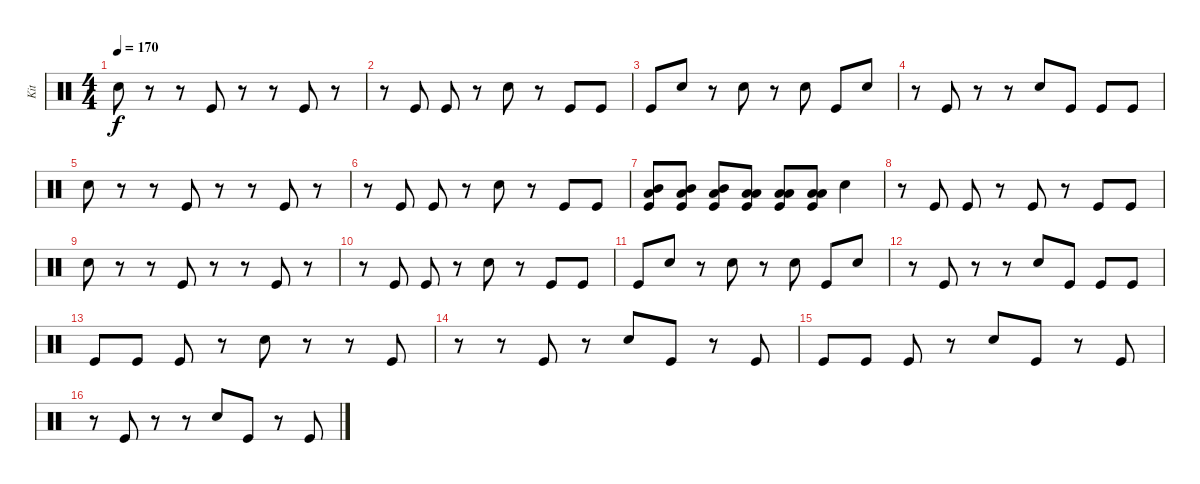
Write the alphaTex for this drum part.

\track ("Kit" "Kit") {instrument percussion}
\staff {score}
\articulation defaults
\ts (4 4)
\tempo 170
\clef neutral
\ks c "Snare (hit) 2".8{dy f}
r.8 r.8 "Kick (hit)".8 r.8 r.8 "Kick (hit)".8 r.8 |
r.8 "Kick (hit)".8 "Kick (hit)".8 r.8 "Snare (hit) 2".8 r.8 "Kick (hit)".8 "Kick (hit)".8 |
"Kick (hit)".8 "Snare (hit) 2".8 r.8 "Snare (hit) 2".8 r.8 "Snare (hit) 2".8 "Kick (hit)".8 "Snare (hit) 2".8 |
r.8 "Kick (hit)".8 r.8 r.8 "Snare (hit) 2".8 "Kick (hit)".8 "Kick (hit)".8 "Kick (hit)".8 |
"Snare (hit) 2".8 r.8 r.8 "Kick (hit)".8 r.8 r.8 "Kick (hit)".8 r.8 |
r.8 "Kick (hit)".8 "Kick (hit)".8 r.8 "Snare (hit) 2".8 r.8 "Kick (hit)".8 "Kick (hit)".8 |
("Low Floor Tom (hit)" "Mid Tom (hit)" "Kick (hit)").8 ("Low Floor Tom (hit)" "Mid Tom (hit)" "Kick (hit)").8 ("Low Floor Tom (hit)" "Mid Tom (hit)" "Kick (hit)").8 ("Low Tom (hit)" "Low Floor Tom (hit)" "Kick (hit)").8 ("Low Tom (hit)" "Low Floor Tom (hit)" "Kick (hit)").8 ("Low Tom (hit)" "Low Floor Tom (hit)" "Kick (hit)").8 "Snare (hit) 2".4 |
r.8 "Kick (hit)".8 "Kick (hit)".8 r.8 "Kick (hit)".8 r.8 "Kick (hit)".8 "Kick (hit)".8 |
"Snare (hit) 2".8 r.8 r.8 "Kick (hit)".8 r.8 r.8 "Kick (hit)".8 r.8 |
r.8 "Kick (hit)".8 "Kick (hit)".8 r.8 "Snare (hit) 2".8 r.8 "Kick (hit)".8 "Kick (hit)".8 |
"Kick (hit)".8 "Snare (hit) 2".8 r.8 "Snare (hit) 2".8 r.8 "Snare (hit) 2".8 "Kick (hit)".8 "Snare (hit) 2".8 |
r.8 "Kick (hit)".8 r.8 r.8 "Snare (hit) 2".8 "Kick (hit)".8 "Kick (hit)".8 "Kick (hit)".8 |
"Kick (hit)".8 "Kick (hit)".8 "Kick (hit)".8 r.8 "Snare (hit) 2".8 r.8 r.8 "Kick (hit)".8 |
r.8 r.8 "Kick (hit)".8 r.8 "Snare (hit) 2".8 "Kick (hit)".8 r.8 "Kick (hit)".8 |
"Kick (hit)".8 "Kick (hit)".8 "Kick (hit)".8 r.8 "Snare (hit) 2".8 "Kick (hit)".8 r.8 "Kick (hit)".8 |
r.8 "Kick (hit)".8 r.8 r.8 "Snare (hit) 2".8 "Kick (hit)".8 r.8 "Kick (hit)".8
